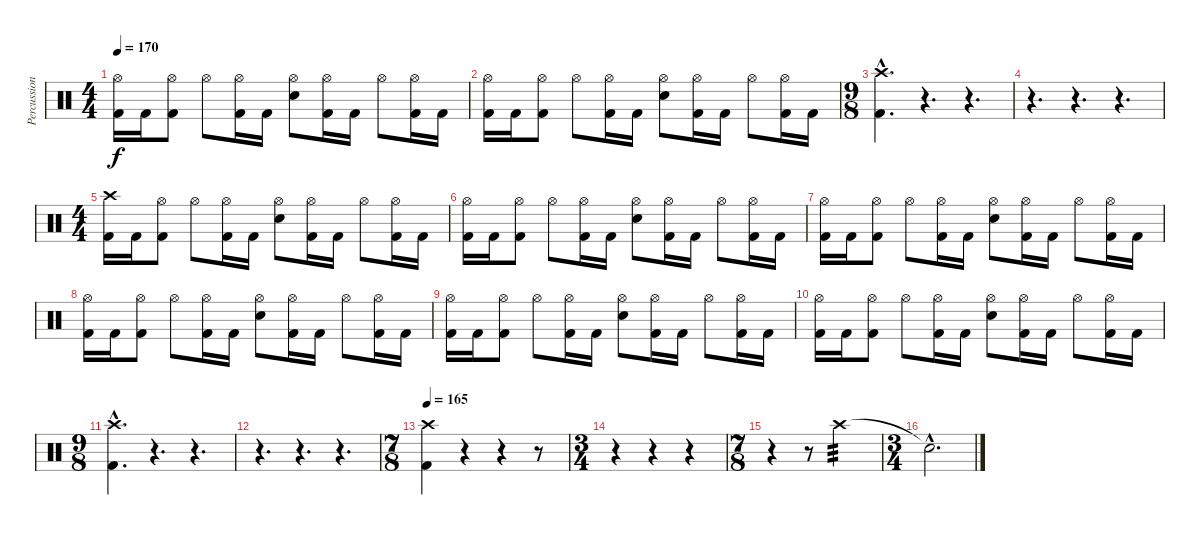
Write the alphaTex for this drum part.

\track ("Percussion" "Percussion") {instrument percussion}
\staff {score}
\articulation defaults
\ts (4 4)
\tempo 170
\clef neutral
\ks c
("Hi-Hat (open)" "Kick (hit) 2").16{dy f} "Kick (hit) 2".16 ("Hi-Hat (open)" "Kick (hit) 2").8 "Hi-Hat (open)".8 ("Hi-Hat (open)" "Kick (hit) 2").16 "Kick (hit) 2".16 ("Hi-Hat (open)" "Electric Snare (hit)").8 ("Hi-Hat (open)" "Kick (hit) 2").16 "Kick (hit) 2".16 "Hi-Hat (open)".8 ("Hi-Hat (open)" "Kick (hit) 2").16 "Kick (hit) 2".16 |
("Hi-Hat (open)" "Kick (hit) 2").16 "Kick (hit) 2".16 ("Hi-Hat (open)" "Kick (hit) 2").8 "Hi-Hat (open)".8 ("Hi-Hat (open)" "Kick (hit) 2").16 "Kick (hit) 2".16 ("Hi-Hat (open)" "Electric Snare (hit)").8 ("Hi-Hat (open)" "Kick (hit) 2").16 "Kick (hit) 2".16 "Hi-Hat (open)".8 ("Hi-Hat (open)" "Kick (hit) 2").16 "Kick (hit) 2".16 |
\ts (9 8)
("Crash high (hit)"{hac} "Kick (hit) 2"{hac}).4{d} r.4{d} r.4{d} |
r.4{d} r.4{d} r.4{d} |
\ts (4 4)
("Crash high (hit)" "Kick (hit) 2").16 "Kick (hit) 2".16 ("Hi-Hat (open)" "Kick (hit) 2").8 "Hi-Hat (open)".8 ("Hi-Hat (open)" "Kick (hit) 2").16 "Kick (hit) 2".16 ("Hi-Hat (open)" "Electric Snare (hit)").8 ("Hi-Hat (open)" "Kick (hit) 2").16 "Kick (hit) 2".16 "Hi-Hat (open)".8 ("Hi-Hat (open)" "Kick (hit) 2").16 "Kick (hit) 2".16 |
("Hi-Hat (open)" "Kick (hit) 2").16 "Kick (hit) 2".16 ("Hi-Hat (open)" "Kick (hit) 2").8 "Hi-Hat (open)".8 ("Hi-Hat (open)" "Kick (hit) 2").16 "Kick (hit) 2".16 ("Hi-Hat (open)" "Electric Snare (hit)").8 ("Hi-Hat (open)" "Kick (hit) 2").16 "Kick (hit) 2".16 "Hi-Hat (open)".8 ("Hi-Hat (open)" "Kick (hit) 2").16 "Kick (hit) 2".16 |
("Hi-Hat (open)" "Kick (hit) 2").16 "Kick (hit) 2".16 ("Hi-Hat (open)" "Kick (hit) 2").8 "Hi-Hat (open)".8 ("Hi-Hat (open)" "Kick (hit) 2").16 "Kick (hit) 2".16 ("Hi-Hat (open)" "Electric Snare (hit)").8 ("Hi-Hat (open)" "Kick (hit) 2").16 "Kick (hit) 2".16 "Hi-Hat (open)".8 ("Hi-Hat (open)" "Kick (hit) 2").16 "Kick (hit) 2".16 |
("Hi-Hat (open)" "Kick (hit) 2").16 "Kick (hit) 2".16 ("Hi-Hat (open)" "Kick (hit) 2").8 "Hi-Hat (open)".8 ("Hi-Hat (open)" "Kick (hit) 2").16 "Kick (hit) 2".16 ("Hi-Hat (open)" "Electric Snare (hit)").8 ("Hi-Hat (open)" "Kick (hit) 2").16 "Kick (hit) 2".16 "Hi-Hat (open)".8 ("Hi-Hat (open)" "Kick (hit) 2").16 "Kick (hit) 2".16 |
("Hi-Hat (open)" "Kick (hit) 2").16 "Kick (hit) 2".16 ("Hi-Hat (open)" "Kick (hit) 2").8 "Hi-Hat (open)".8 ("Hi-Hat (open)" "Kick (hit) 2").16 "Kick (hit) 2".16 ("Hi-Hat (open)" "Electric Snare (hit)").8 ("Hi-Hat (open)" "Kick (hit) 2").16 "Kick (hit) 2".16 "Hi-Hat (open)".8 ("Hi-Hat (open)" "Kick (hit) 2").16 "Kick (hit) 2".16 |
("Hi-Hat (open)" "Kick (hit) 2").16 "Kick (hit) 2".16 ("Hi-Hat (open)" "Kick (hit) 2").8 "Hi-Hat (open)".8 ("Hi-Hat (open)" "Kick (hit) 2").16 "Kick (hit) 2".16 ("Hi-Hat (open)" "Electric Snare (hit)").8 ("Hi-Hat (open)" "Kick (hit) 2").16 "Kick (hit) 2".16 "Hi-Hat (open)".8 ("Hi-Hat (open)" "Kick (hit) 2").16 "Kick (hit) 2".16 |
\ts (9 8)
("Crash high (hit)"{hac} "Kick (hit) 2"{hac}).4{d} r.4{d} r.4{d} |
r.4{d} r.4{d} r.4{d} |
\ts (7 8)
\tempo 165
("Crash high (hit)" "Kick (hit) 2").4 r.4 r.4 r.8 |
\ts (3 4)
r.4 r.4 r.4 |
\ts (7 8)
r.4{volume 0} r.8 "Crash high (hit)".2{tp 3 volume 15} |
\ts (3 4)
"Snare (hit)"{hac t}.2{d}
